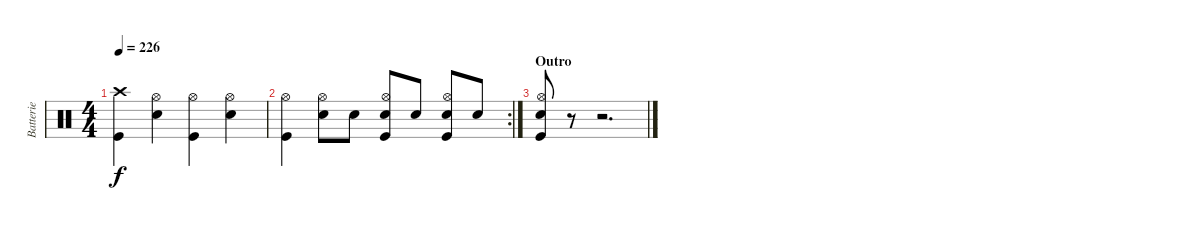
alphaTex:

\track ("Batterie" "Batterie") {instrument percussion}
\staff {score}
\articulation defaults
\ts (4 4)
\tempo 226
\clef neutral
\ks c
("Crash high (hit)" "Kick (hit)").4{dy f} ("Hi-Hat (open)" "Electric Snare (hit)").4 ("Hi-Hat (open)" "Kick (hit)").4 ("Hi-Hat (open)" "Electric Snare (hit)").4 |
\rc 2
("Hi-Hat (open)" "Kick (hit)").4 ("Hi-Hat (open)" "Electric Snare (hit)").8 "Electric Snare (hit)".8 ("Hi-Hat (open)" "Electric Snare (hit)" "Kick (hit)").8 "Electric Snare (hit)".8 ("Hi-Hat (open)" "Electric Snare (hit)" "Kick (hit)").8 "Electric Snare (hit)".8 |
\section ("" "Outro")
("Hi-Hat (open)" "Electric Snare (hit)" "Kick (hit)").8 r.8 r.2{d}
